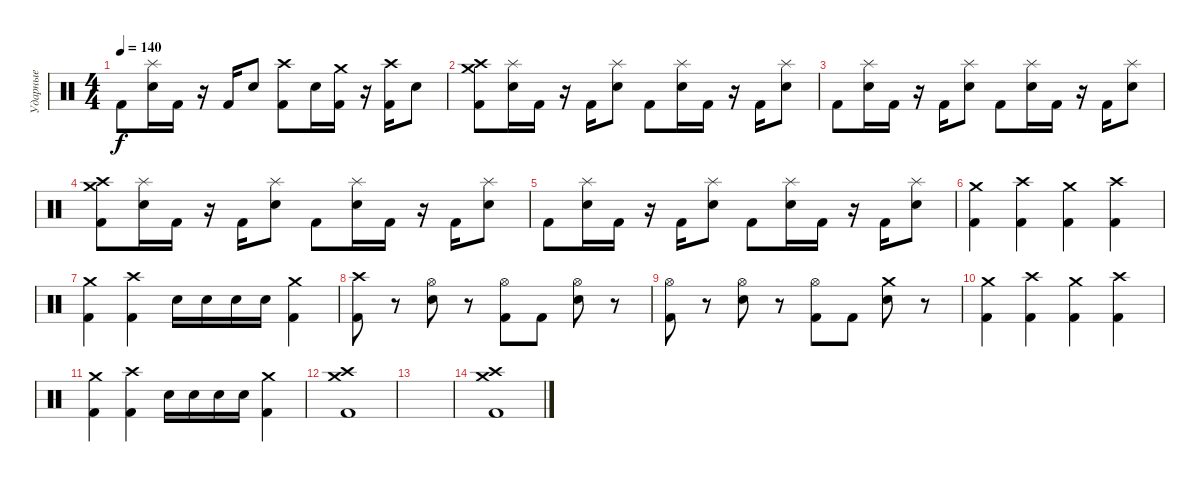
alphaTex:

\track ("Ударные" "Ударные") {instrument percussion}
\staff {score}
\articulation defaults
\ts (4 4)
\tempo 140
\clef neutral
\ks c "Kick (hit) 2".8{dy f}
("Splash (hit)" "Electric Snare (hit)").16 "Kick (hit) 2".16 r.16 "Kick (hit) 2".16 "Electric Snare (hit)".8 ("Crash high (hit)" "Kick (hit) 2").8 "Electric Snare (hit)".16 ("Crash medium (hit)" "Kick (hit) 2").16 r.16 ("Crash high (hit)" "Kick (hit) 2").16 "Electric Snare (hit)".8 |
("Crash medium (hit)" "Crash high (hit)" "Kick (hit) 2").8 ("Splash (hit)" "Electric Snare (hit)").16 "Kick (hit) 2".16 r.16 "Kick (hit) 2".16 ("Splash (hit)" "Electric Snare (hit)").8 "Kick (hit) 2".8 ("Splash (hit)" "Electric Snare (hit)").16 "Kick (hit) 2".16 r.16 "Kick (hit) 2".16 ("Splash (hit)" "Electric Snare (hit)").8 |
"Kick (hit) 2".8 ("Splash (hit)" "Electric Snare (hit)").16 "Kick (hit) 2".16 r.16 "Kick (hit) 2".16 ("Splash (hit)" "Electric Snare (hit)").8 "Kick (hit) 2".8 ("Splash (hit)" "Electric Snare (hit)").16 "Kick (hit) 2".16 r.16 "Kick (hit) 2".16 ("Splash (hit)" "Electric Snare (hit)").8 |
("Crash medium (hit)" "Crash high (hit)" "Kick (hit) 2").8 ("Splash (hit)" "Electric Snare (hit)").16 "Kick (hit) 2".16 r.16 "Kick (hit) 2".16 ("Splash (hit)" "Electric Snare (hit)").8 "Kick (hit) 2".8 ("Splash (hit)" "Electric Snare (hit)").16 "Kick (hit) 2".16 r.16 "Kick (hit) 2".16 ("Splash (hit)" "Electric Snare (hit)").8 |
"Kick (hit) 2".8 ("Splash (hit)" "Electric Snare (hit)").16 "Kick (hit) 2".16 r.16 "Kick (hit) 2".16 ("Splash (hit)" "Electric Snare (hit)").8 "Kick (hit) 2".8 ("Splash (hit)" "Electric Snare (hit)").16 "Kick (hit) 2".16 r.16 "Kick (hit) 2".16 ("Splash (hit)" "Electric Snare (hit)").8 |
("Crash medium (hit)" "Kick (hit) 2").4 ("Crash high (hit)" "Kick (hit) 2").4 ("Crash medium (hit)" "Kick (hit) 2").4 ("Crash high (hit)" "Kick (hit) 2").4 |
("Crash medium (hit)" "Kick (hit) 2").4 ("Crash high (hit)" "Kick (hit) 2").4 "Electric Snare (hit)".16 "Electric Snare (hit)".16 "Electric Snare (hit)".16 "Electric Snare (hit)".16 ("Crash medium (hit)" "Kick (hit) 2").4 |
("Crash high (hit)" "Kick (hit) 2").8 r.8 ("Hi-Hat (open)" "Electric Snare (hit)").8 r.8 ("Hi-Hat (open)" "Kick (hit) 2").8 "Kick (hit) 2".8 ("Hi-Hat (open)" "Electric Snare (hit)").8 r.8 |
("Hi-Hat (open)" "Kick (hit) 2").8 r.8 ("Hi-Hat (open)" "Electric Snare (hit)").8 r.8 ("Hi-Hat (open)" "Kick (hit) 2").8 "Kick (hit) 2".8 ("Crash medium (hit)" "Electric Snare (hit)").8 r.8 |
("Crash medium (hit)" "Kick (hit) 2").4 ("Crash high (hit)" "Kick (hit) 2").4 ("Crash medium (hit)" "Kick (hit) 2").4 ("Crash high (hit)" "Kick (hit) 2").4 |
("Crash medium (hit)" "Kick (hit) 2").4 ("Crash high (hit)" "Kick (hit) 2").4 "Electric Snare (hit)".16 "Electric Snare (hit)".16 "Electric Snare (hit)".16 "Electric Snare (hit)".16 ("Crash medium (hit)" "Kick (hit) 2").4 |
("Crash high (hit)" "Crash medium (hit)" "Kick (hit) 2").1 |
|
("Crash medium (hit)" "Crash high (hit)" "Kick (hit) 2").1
